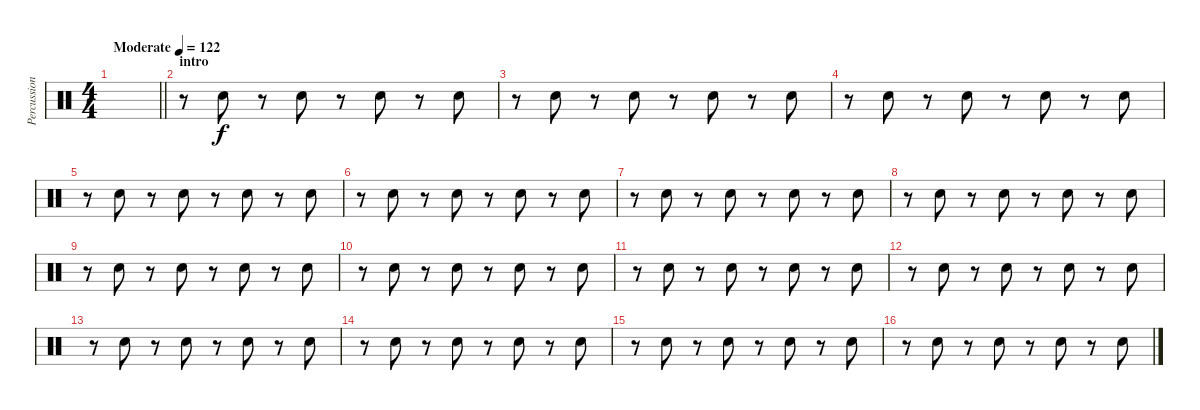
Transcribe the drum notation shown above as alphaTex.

\track ("Percussion" "Percussion") {instrument percussion}
\staff {score}
\articulation defaults
\ts (4 4)
\tempo (122 "Moderate")
\clef neutral
\barLineRight lightlight
\ks c
|
\section ("" "intro")
r.8 "Hand Clap (hit)".8 r.8 "Hand Clap (hit)".8 r.8 "Hand Clap (hit)".8 r.8 "Hand Clap (hit)".8 |
r.8 "Hand Clap (hit)".8 r.8 "Hand Clap (hit)".8 r.8 "Hand Clap (hit)".8 r.8 "Hand Clap (hit)".8 |
r.8 "Hand Clap (hit)".8 r.8 "Hand Clap (hit)".8 r.8 "Hand Clap (hit)".8 r.8 "Hand Clap (hit)".8 |
r.8 "Hand Clap (hit)".8 r.8 "Hand Clap (hit)".8 r.8 "Hand Clap (hit)".8 r.8 "Hand Clap (hit)".8 |
r.8 "Hand Clap (hit)".8 r.8 "Hand Clap (hit)".8 r.8 "Hand Clap (hit)".8 r.8 "Hand Clap (hit)".8 |
r.8 "Hand Clap (hit)".8 r.8 "Hand Clap (hit)".8 r.8 "Hand Clap (hit)".8 r.8 "Hand Clap (hit)".8 |
r.8 "Hand Clap (hit)".8 r.8 "Hand Clap (hit)".8 r.8 "Hand Clap (hit)".8 r.8 "Hand Clap (hit)".8 |
r.8 "Hand Clap (hit)".8 r.8 "Hand Clap (hit)".8 r.8 "Hand Clap (hit)".8 r.8 "Hand Clap (hit)".8 |
r.8 "Hand Clap (hit)".8 r.8 "Hand Clap (hit)".8 r.8 "Hand Clap (hit)".8 r.8 "Hand Clap (hit)".8 |
r.8 "Hand Clap (hit)".8 r.8 "Hand Clap (hit)".8 r.8 "Hand Clap (hit)".8 r.8 "Hand Clap (hit)".8 |
r.8 "Hand Clap (hit)".8 r.8 "Hand Clap (hit)".8 r.8 "Hand Clap (hit)".8 r.8 "Hand Clap (hit)".8 |
r.8 "Hand Clap (hit)".8 r.8 "Hand Clap (hit)".8 r.8 "Hand Clap (hit)".8 r.8 "Hand Clap (hit)".8 |
r.8 "Hand Clap (hit)".8 r.8 "Hand Clap (hit)".8 r.8 "Hand Clap (hit)".8 r.8 "Hand Clap (hit)".8 |
r.8 "Hand Clap (hit)".8 r.8 "Hand Clap (hit)".8 r.8 "Hand Clap (hit)".8 r.8 "Hand Clap (hit)".8 |
r.8 "Hand Clap (hit)".8 r.8 "Hand Clap (hit)".8 r.8 "Hand Clap (hit)".8 r.8 "Hand Clap (hit)".8
